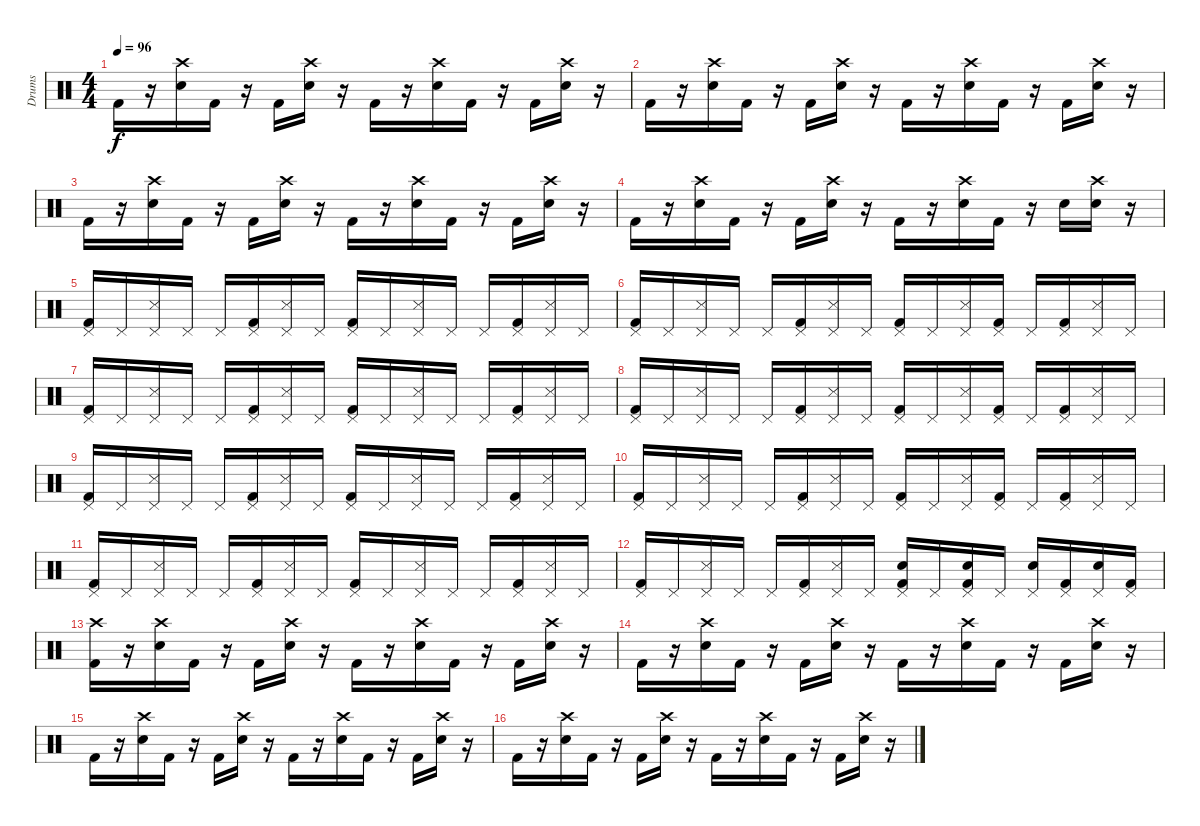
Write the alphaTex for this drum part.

\track ("Drums" "Drums") {instrument percussion}
\staff {score}
\articulation defaults
\ts (4 4)
\tempo 96
\clef neutral
\ks c "Kick (hit) 2".16{dy f}
r.16 ("Crash high (hit)" "Electric Snare (hit)").16 "Kick (hit) 2".16 r.16 "Kick (hit) 2".16 ("Crash high (hit)" "Electric Snare (hit)").16 r.16 "Kick (hit) 2".16 r.16 ("Crash high (hit)" "Electric Snare (hit)").16 "Kick (hit) 2".16 r.16 "Kick (hit) 2".16 ("Crash high (hit)" "Electric Snare (hit)").16 r.16 |
"Kick (hit) 2".16 r.16 ("Crash high (hit)" "Electric Snare (hit)").16 "Kick (hit) 2".16 r.16 "Kick (hit) 2".16 ("Crash high (hit)" "Electric Snare (hit)").16 r.16 "Kick (hit) 2".16 r.16 ("Crash high (hit)" "Electric Snare (hit)").16 "Kick (hit) 2".16 r.16 "Kick (hit) 2".16 ("Crash high (hit)" "Electric Snare (hit)").16 r.16 |
"Kick (hit) 2".16 r.16 ("Crash high (hit)" "Electric Snare (hit)").16 "Kick (hit) 2".16 r.16 "Kick (hit) 2".16 ("Crash high (hit)" "Electric Snare (hit)").16 r.16 "Kick (hit) 2".16 r.16 ("Crash high (hit)" "Electric Snare (hit)").16 "Kick (hit) 2".16 r.16 "Kick (hit) 2".16 ("Crash high (hit)" "Electric Snare (hit)").16 r.16 |
"Kick (hit) 2".16 r.16 ("Crash high (hit)" "Electric Snare (hit)").16 "Kick (hit) 2".16 r.16 "Kick (hit) 2".16 ("Crash high (hit)" "Electric Snare (hit)").16 r.16 "Kick (hit) 2".16 r.16 ("Crash high (hit)" "Electric Snare (hit)").16 "Kick (hit) 2".16 r.16 "Electric Snare (hit)".16 ("Crash high (hit)" "Electric Snare (hit)").16 r.16 |
("Pedal Hi-Hat (hit)" "Kick (hit) 2").16 "Pedal Hi-Hat (hit)".16 ("Pedal Hi-Hat (hit)" "Snare (side stick) 3").16 "Pedal Hi-Hat (hit)".16 "Pedal Hi-Hat (hit)".16 ("Pedal Hi-Hat (hit)" "Kick (hit) 2").16 ("Pedal Hi-Hat (hit)" "Snare (side stick) 3").16 "Pedal Hi-Hat (hit)".16 ("Pedal Hi-Hat (hit)" "Kick (hit) 2").16 "Pedal Hi-Hat (hit)".16 ("Pedal Hi-Hat (hit)" "Snare (side stick) 3").16 "Pedal Hi-Hat (hit)".16 "Pedal Hi-Hat (hit)".16 ("Pedal Hi-Hat (hit)" "Kick (hit) 2").16 ("Pedal Hi-Hat (hit)" "Snare (side stick) 3").16 "Pedal Hi-Hat (hit)".16 |
("Pedal Hi-Hat (hit)" "Kick (hit) 2").16 "Pedal Hi-Hat (hit)".16 ("Pedal Hi-Hat (hit)" "Snare (side stick) 3").16 "Pedal Hi-Hat (hit)".16 "Pedal Hi-Hat (hit)".16 ("Pedal Hi-Hat (hit)" "Kick (hit) 2").16 ("Pedal Hi-Hat (hit)" "Snare (side stick) 3").16 "Pedal Hi-Hat (hit)".16 ("Pedal Hi-Hat (hit)" "Kick (hit) 2").16 "Pedal Hi-Hat (hit)".16 ("Pedal Hi-Hat (hit)" "Snare (side stick) 3").16 ("Pedal Hi-Hat (hit)" "Kick (hit) 2").16 "Pedal Hi-Hat (hit)".16 ("Pedal Hi-Hat (hit)" "Kick (hit) 2").16 ("Pedal Hi-Hat (hit)" "Snare (side stick) 3").16 "Pedal Hi-Hat (hit)".16 |
("Pedal Hi-Hat (hit)" "Kick (hit) 2").16 "Pedal Hi-Hat (hit)".16 ("Pedal Hi-Hat (hit)" "Snare (side stick) 3").16 "Pedal Hi-Hat (hit)".16 "Pedal Hi-Hat (hit)".16 ("Pedal Hi-Hat (hit)" "Kick (hit) 2").16 ("Pedal Hi-Hat (hit)" "Snare (side stick) 3").16 "Pedal Hi-Hat (hit)".16 ("Pedal Hi-Hat (hit)" "Kick (hit) 2").16 "Pedal Hi-Hat (hit)".16 ("Pedal Hi-Hat (hit)" "Snare (side stick) 3").16 "Pedal Hi-Hat (hit)".16 "Pedal Hi-Hat (hit)".16 ("Pedal Hi-Hat (hit)" "Kick (hit) 2").16 ("Pedal Hi-Hat (hit)" "Snare (side stick) 3").16 "Pedal Hi-Hat (hit)".16 |
("Pedal Hi-Hat (hit)" "Kick (hit) 2").16 "Pedal Hi-Hat (hit)".16 ("Pedal Hi-Hat (hit)" "Snare (side stick) 3").16 "Pedal Hi-Hat (hit)".16 "Pedal Hi-Hat (hit)".16 ("Pedal Hi-Hat (hit)" "Kick (hit) 2").16 ("Pedal Hi-Hat (hit)" "Snare (side stick) 3").16 "Pedal Hi-Hat (hit)".16 ("Pedal Hi-Hat (hit)" "Kick (hit) 2").16 "Pedal Hi-Hat (hit)".16 ("Pedal Hi-Hat (hit)" "Snare (side stick) 3").16 ("Pedal Hi-Hat (hit)" "Kick (hit) 2").16 "Pedal Hi-Hat (hit)".16 ("Pedal Hi-Hat (hit)" "Kick (hit) 2").16 ("Pedal Hi-Hat (hit)" "Snare (side stick) 3").16 "Pedal Hi-Hat (hit)".16 |
("Pedal Hi-Hat (hit)" "Kick (hit) 2").16 "Pedal Hi-Hat (hit)".16 ("Pedal Hi-Hat (hit)" "Snare (side stick) 3").16 "Pedal Hi-Hat (hit)".16 "Pedal Hi-Hat (hit)".16 ("Pedal Hi-Hat (hit)" "Kick (hit) 2").16 ("Pedal Hi-Hat (hit)" "Snare (side stick) 3").16 "Pedal Hi-Hat (hit)".16 ("Pedal Hi-Hat (hit)" "Kick (hit) 2").16 "Pedal Hi-Hat (hit)".16 ("Pedal Hi-Hat (hit)" "Snare (side stick) 3").16 "Pedal Hi-Hat (hit)".16 "Pedal Hi-Hat (hit)".16 ("Pedal Hi-Hat (hit)" "Kick (hit) 2").16 ("Pedal Hi-Hat (hit)" "Snare (side stick) 3").16 "Pedal Hi-Hat (hit)".16 |
("Pedal Hi-Hat (hit)" "Kick (hit) 2").16 "Pedal Hi-Hat (hit)".16 ("Pedal Hi-Hat (hit)" "Snare (side stick) 3").16 "Pedal Hi-Hat (hit)".16 "Pedal Hi-Hat (hit)".16 ("Pedal Hi-Hat (hit)" "Kick (hit) 2").16 ("Pedal Hi-Hat (hit)" "Snare (side stick) 3").16 "Pedal Hi-Hat (hit)".16 ("Pedal Hi-Hat (hit)" "Kick (hit) 2").16 "Pedal Hi-Hat (hit)".16 ("Pedal Hi-Hat (hit)" "Snare (side stick) 3").16 ("Pedal Hi-Hat (hit)" "Kick (hit) 2").16 "Pedal Hi-Hat (hit)".16 ("Pedal Hi-Hat (hit)" "Kick (hit) 2").16 ("Pedal Hi-Hat (hit)" "Snare (side stick) 3").16 "Pedal Hi-Hat (hit)".16 |
("Pedal Hi-Hat (hit)" "Kick (hit) 2").16 "Pedal Hi-Hat (hit)".16 ("Pedal Hi-Hat (hit)" "Snare (side stick) 3").16 "Pedal Hi-Hat (hit)".16 "Pedal Hi-Hat (hit)".16 ("Pedal Hi-Hat (hit)" "Kick (hit) 2").16 ("Pedal Hi-Hat (hit)" "Snare (side stick) 3").16 "Pedal Hi-Hat (hit)".16 ("Pedal Hi-Hat (hit)" "Kick (hit) 2").16 "Pedal Hi-Hat (hit)".16 ("Pedal Hi-Hat (hit)" "Snare (side stick) 3").16 "Pedal Hi-Hat (hit)".16 "Pedal Hi-Hat (hit)".16 ("Pedal Hi-Hat (hit)" "Kick (hit) 2").16 ("Pedal Hi-Hat (hit)" "Snare (side stick) 3").16 "Pedal Hi-Hat (hit)".16 |
("Pedal Hi-Hat (hit)" "Kick (hit) 2").16 "Pedal Hi-Hat (hit)".16 ("Pedal Hi-Hat (hit)" "Snare (side stick) 3").16 "Pedal Hi-Hat (hit)".16 "Pedal Hi-Hat (hit)".16 ("Pedal Hi-Hat (hit)" "Kick (hit) 2").16 ("Pedal Hi-Hat (hit)" "Snare (side stick) 3").16 "Pedal Hi-Hat (hit)".16 ("Pedal Hi-Hat (hit)" "Electric Snare (hit)" "Kick (hit) 2").16 "Pedal Hi-Hat (hit)".16 ("Pedal Hi-Hat (hit)" "Electric Snare (hit)" "Kick (hit) 2").16 "Pedal Hi-Hat (hit)".16 ("Pedal Hi-Hat (hit)" "Electric Snare (hit)").16 ("Pedal Hi-Hat (hit)" "Kick (hit) 2").16 ("Pedal Hi-Hat (hit)" "Electric Snare (hit)").16 ("Pedal Hi-Hat (hit)" "Kick (hit) 2").16 |
("Crash high (hit)" "Kick (hit) 2").16 r.16 ("Crash high (hit)" "Electric Snare (hit)").16 "Kick (hit) 2".16 r.16 "Kick (hit) 2".16 ("Crash high (hit)" "Electric Snare (hit)").16 r.16 "Kick (hit) 2".16 r.16 ("Crash high (hit)" "Electric Snare (hit)").16 "Kick (hit) 2".16 r.16 "Kick (hit) 2".16 ("Crash high (hit)" "Electric Snare (hit)").16 r.16 |
"Kick (hit) 2".16 r.16 ("Crash high (hit)" "Electric Snare (hit)").16 "Kick (hit) 2".16 r.16 "Kick (hit) 2".16 ("Crash high (hit)" "Electric Snare (hit)").16 r.16 "Kick (hit) 2".16 r.16 ("Crash high (hit)" "Electric Snare (hit)").16 "Kick (hit) 2".16 r.16 "Kick (hit) 2".16 ("Crash high (hit)" "Electric Snare (hit)").16 r.16 |
"Kick (hit) 2".16 r.16 ("Crash high (hit)" "Electric Snare (hit)").16 "Kick (hit) 2".16 r.16 "Kick (hit) 2".16 ("Crash high (hit)" "Electric Snare (hit)").16 r.16 "Kick (hit) 2".16 r.16 ("Crash high (hit)" "Electric Snare (hit)").16 "Kick (hit) 2".16 r.16 "Kick (hit) 2".16 ("Crash high (hit)" "Electric Snare (hit)").16 r.16 |
"Kick (hit) 2".16 r.16 ("Crash high (hit)" "Electric Snare (hit)").16 "Kick (hit) 2".16 r.16 "Kick (hit) 2".16 ("Crash high (hit)" "Electric Snare (hit)").16 r.16 "Kick (hit) 2".16 r.16 ("Crash high (hit)" "Electric Snare (hit)").16 "Kick (hit) 2".16 r.16 "Kick (hit) 2".16 ("Crash high (hit)" "Electric Snare (hit)").16 r.16
